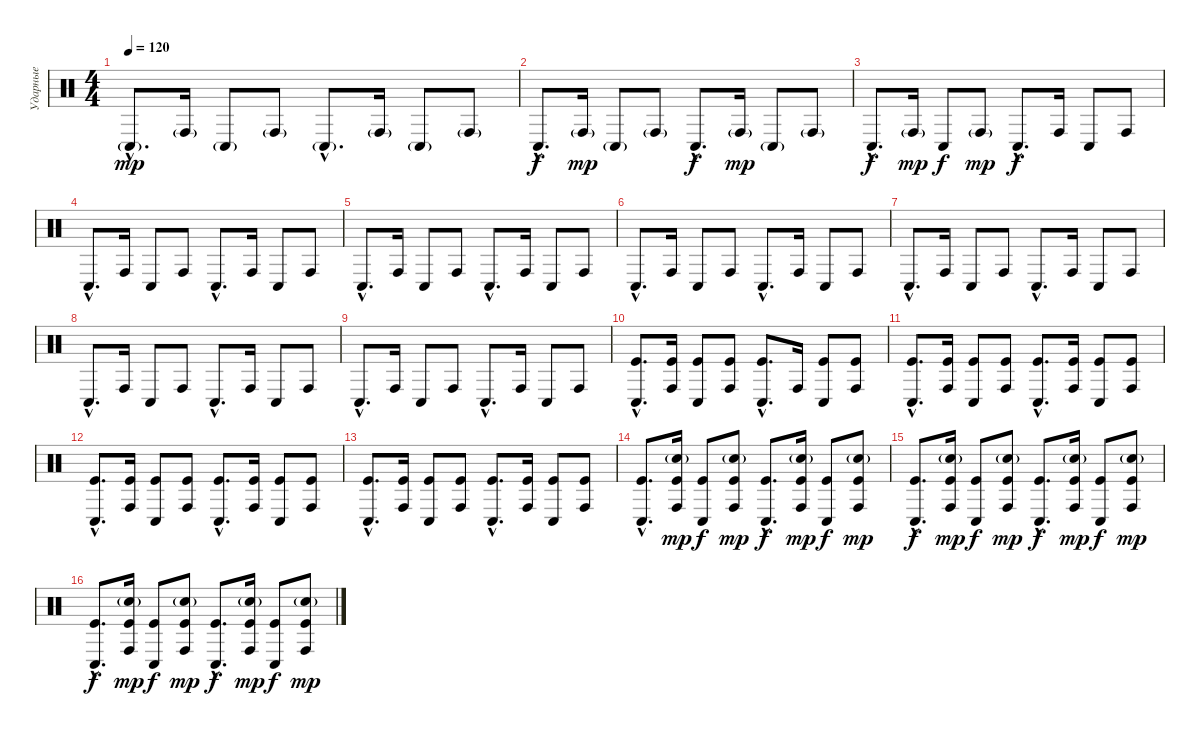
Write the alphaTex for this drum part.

\track ("Ударные" "Ударные") {instrument percussion}
\staff {score}
\articulation defaults
\ts (4 4)
\tempo 120
\clef neutral
\ks c "Conga low (hit)"{g hac}.8{d dy mp} "Conga high (hit)"{g}.16 "Conga low (hit)"{g}.8 "Conga high (hit)"{g}.8 "Conga low (hit)"{g hac}.8{d} "Conga high (hit)"{g}.16 "Conga low (hit)"{g}.8 "Conga high (hit)"{g}.8
|
"Conga low (hit)"{hac}.8{d dy f} "Conga high (hit)"{g}.16{dy mp} "Conga low (hit)"{g}.8 "Conga high (hit)"{g}.8 "Conga low (hit)"{hac}.8{d dy f} "Conga high (hit)"{g}.16{dy mp} "Conga low (hit)"{g}.8 "Conga high (hit)"{g}.8 |
"Conga low (hit)"{hac}.8{d dy f} "Conga high (hit)"{g}.16{dy mp} "Conga low (hit)".8{dy f} "Conga high (hit)"{g}.8{dy mp} "Conga low (hit)"{hac}.8{d dy f} "Conga high (hit)".16 "Conga low (hit)".8 "Conga high (hit)".8 |
"Conga low (hit)"{hac}.8{d} "Conga high (hit)".16 "Conga low (hit)".8 "Conga high (hit)".8 "Conga low (hit)"{hac}.8{d} "Conga high (hit)".16 "Conga low (hit)".8 "Conga high (hit)".8 |
"Conga low (hit)"{hac}.8{d} "Conga high (hit)".16 "Conga low (hit)".8 "Conga high (hit)".8 "Conga low (hit)"{hac}.8{d} "Conga high (hit)".16 "Conga low (hit)".8 "Conga high (hit)".8 |
"Conga low (hit)"{hac}.8{d} "Conga high (hit)".16 "Conga low (hit)".8 "Conga high (hit)".8 "Conga low (hit)"{hac}.8{d} "Conga high (hit)".16 "Conga low (hit)".8 "Conga high (hit)".8 |
"Conga low (hit)"{hac}.8{d} "Conga high (hit)".16 "Conga low (hit)".8 "Conga high (hit)".8 "Conga low (hit)"{hac}.8{d} "Conga high (hit)".16 "Conga low (hit)".8 "Conga high (hit)".8 |
"Conga low (hit)"{hac}.8{d} "Conga high (hit)".16 "Conga low (hit)".8 "Conga high (hit)".8 "Conga low (hit)"{hac}.8{d} "Conga high (hit)".16 "Conga low (hit)".8 "Conga high (hit)".8 |
"Conga low (hit)"{hac}.8{d} "Conga high (hit)".16 "Conga low (hit)".8 "Conga high (hit)".8 "Conga low (hit)"{hac}.8{d} "Conga high (hit)".16 "Conga low (hit)".8 "Conga high (hit)".8 |
("Conga low (hit)"{hac} "Kick (hit)"{hac}).8{d} ("Conga high (hit)" "Kick (hit)").16 ("Conga low (hit)" "Kick (hit)").8 ("Conga high (hit)" "Kick (hit)").8 ("Conga low (hit)"{hac} "Kick (hit)"{hac}).8{d} "Conga high (hit)".16 ("Conga low (hit)" "Kick (hit)").8 ("Conga high (hit)" "Kick (hit)").8 |
("Conga low (hit)"{hac} "Kick (hit)"{hac}).8{d} ("Conga high (hit)" "Kick (hit)").16 ("Conga low (hit)" "Kick (hit)").8 ("Conga high (hit)" "Kick (hit)").8 ("Conga low (hit)"{hac} "Kick (hit)"{hac}).8{d} ("Conga high (hit)" "Kick (hit)").16 ("Conga low (hit)" "Kick (hit)").8 ("Conga high (hit)" "Kick (hit)").8 |
("Conga low (hit)"{hac} "Kick (hit)"{hac}).8{d} ("Conga high (hit)" "Kick (hit)").16 ("Conga low (hit)" "Kick (hit)").8 ("Conga high (hit)" "Kick (hit)").8 ("Conga low (hit)"{hac} "Kick (hit)"{hac}).8{d} ("Conga high (hit)" "Kick (hit)").16 ("Conga low (hit)" "Kick (hit)").8 ("Conga high (hit)" "Kick (hit)").8 |
("Conga low (hit)"{hac} "Kick (hit)"{hac}).8{d} ("Conga high (hit)" "Kick (hit)").16 ("Conga low (hit)" "Kick (hit)").8 ("Conga high (hit)" "Kick (hit)").8 ("Conga low (hit)"{hac} "Kick (hit)"{hac}).8{d} ("Conga high (hit)" "Kick (hit)").16 ("Conga low (hit)" "Kick (hit)").8 ("Conga high (hit)" "Kick (hit)").8 |
("Conga low (hit)"{hac} "Kick (hit)"{hac}).8{d} ("Conga high (hit)" "Electric Snare (hit)"{g} "Kick (hit)").16{dy mp} ("Conga low (hit)" "Kick (hit)").8{dy f} ("Conga high (hit)" "Electric Snare (hit)"{g} "Kick (hit)").8{dy mp} ("Conga low (hit)"{hac} "Kick (hit)"{hac}).8{d dy f} ("Conga high (hit)" "Electric Snare (hit)"{g} "Kick (hit)").16{dy mp} ("Conga low (hit)" "Kick (hit)").8{dy f} ("Conga high (hit)" "Electric Snare (hit)"{g} "Kick (hit)").8{dy mp} |
("Conga low (hit)"{hac} "Kick (hit)"{hac}).8{d dy f} ("Conga high (hit)" "Electric Snare (hit)"{g} "Kick (hit)").16{dy mp} ("Conga low (hit)" "Kick (hit)").8{dy f} ("Conga high (hit)" "Electric Snare (hit)"{g} "Kick (hit)").8{dy mp} ("Conga low (hit)"{hac} "Kick (hit)"{hac}).8{d dy f} ("Conga high (hit)" "Electric Snare (hit)"{g} "Kick (hit)").16{dy mp} ("Conga low (hit)" "Kick (hit)").8{dy f} ("Conga high (hit)" "Electric Snare (hit)"{g} "Kick (hit)").8{dy mp} |
("Conga low (hit)"{hac} "Kick (hit)"{hac}).8{d dy f} ("Conga high (hit)" "Electric Snare (hit)"{g} "Kick (hit)").16{dy mp} ("Conga low (hit)" "Kick (hit)").8{dy f} ("Conga high (hit)" "Electric Snare (hit)"{g} "Kick (hit)").8{dy mp} ("Conga low (hit)"{hac} "Kick (hit)"{hac}).8{d dy f} ("Conga high (hit)" "Electric Snare (hit)"{g} "Kick (hit)").16{dy mp} ("Conga low (hit)" "Kick (hit)").8{dy f} ("Conga high (hit)" "Electric Snare (hit)"{g} "Kick (hit)").8{dy mp}
